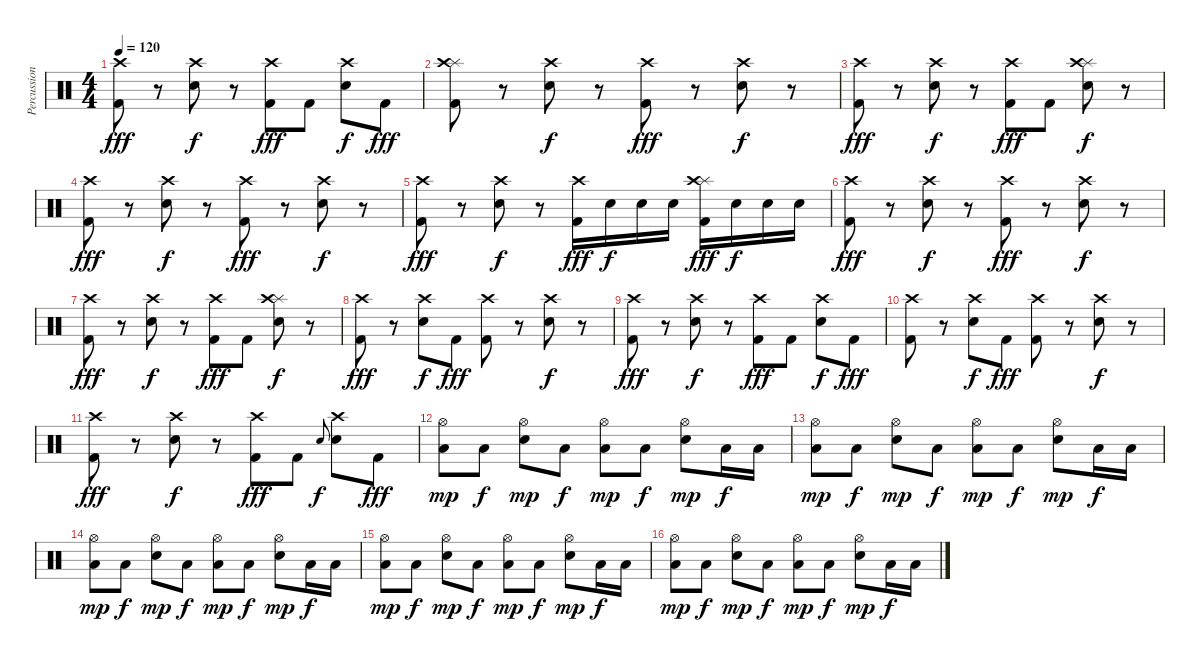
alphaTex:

\track ("Percussion" "Percussion") {instrument percussion}
\staff {score}
\articulation defaults
\ts (4 4)
\tempo 120
\clef neutral
\ks c
("Crash high (hit)" "Kick (hit) 2").8{dy fff} r.8 ("Electric Snare (hit)" "Crash high (hit)").8{dy f} r.8 ("Crash high (hit)" "Kick (hit) 2").8{dy fff} "Kick (hit) 2".8 ("Electric Snare (hit)" "Crash high (hit)").8{dy f} "Kick (hit) 2".8{dy fff} |
("Splash (hit)" "Crash high (hit)" "Kick (hit) 2").8 r.8 ("Electric Snare (hit)" "Crash high (hit)").8{dy f} r.8 ("Crash high (hit)" "Kick (hit) 2").8{dy fff} r.8 ("Electric Snare (hit)" "Crash high (hit)").8{dy f} r.8 |
("Crash high (hit)" "Kick (hit) 2").8{dy fff} r.8 ("Electric Snare (hit)" "Crash high (hit)").8{dy f} r.8 ("Crash high (hit)" "Kick (hit) 2").8{dy fff} "Kick (hit) 2".8 ("Splash (hit)" "Electric Snare (hit)" "Crash high (hit)").8{dy f} r.8 |
("Crash high (hit)" "Kick (hit) 2").8{dy fff} r.8 ("Electric Snare (hit)" "Crash high (hit)").8{dy f} r.8 ("Crash high (hit)" "Kick (hit) 2").8{dy fff} r.8 ("Electric Snare (hit)" "Crash high (hit)").8{dy f} r.8 |
("Crash high (hit)" "Kick (hit) 2").8{dy fff} r.8 ("Electric Snare (hit)" "Crash high (hit)").8{dy f} r.8 ("Crash high (hit)" "Kick (hit) 2").16{dy fff} "Snare (hit) 2".16{dy f} "Electric Snare (hit)".16 "Snare (hit) 2".16 ("Splash (hit)" "Crash high (hit)" "Kick (hit) 2").16{dy fff} "Snare (hit) 2".16{dy f} "Electric Snare (hit)".16 "Snare (hit) 2".16 |
("Crash high (hit)" "Kick (hit) 2").8{dy fff} r.8 ("Electric Snare (hit)" "Crash high (hit)").8{dy f} r.8 ("Crash high (hit)" "Kick (hit) 2").8{dy fff} r.8 ("Electric Snare (hit)" "Crash high (hit)").8{dy f} r.8 |
("Crash high (hit)" "Kick (hit) 2").8{dy fff} r.8 ("Electric Snare (hit)" "Crash high (hit)").8{dy f} r.8 ("Crash high (hit)" "Kick (hit) 2").8{dy fff} "Kick (hit) 2".8 ("Splash (hit)" "Electric Snare (hit)" "Crash high (hit)").8{dy f} r.8 |
("Crash high (hit)" "Kick (hit) 2").8{dy fff} r.8 ("Electric Snare (hit)" "Crash high (hit)").8{dy f} "Kick (hit) 2".8{dy fff} ("Crash high (hit)" "Kick (hit) 2").8 r.8 ("Electric Snare (hit)" "Crash high (hit)").8{dy f} r.8 |
("Crash high (hit)" "Kick (hit) 2").8{dy fff} r.8 ("Electric Snare (hit)" "Crash high (hit)").8{dy f} r.8 ("Crash high (hit)" "Kick (hit) 2").8{dy fff} "Kick (hit) 2".8 ("Electric Snare (hit)" "Crash high (hit)").8{dy f} "Kick (hit) 2".8{dy fff} |
("Crash high (hit)" "Kick (hit) 2").8 r.8 ("Electric Snare (hit)" "Crash high (hit)").8{dy f} "Kick (hit) 2".8{dy fff} ("Crash high (hit)" "Kick (hit) 2").8 r.8 ("Electric Snare (hit)" "Crash high (hit)").8{dy f} r.8 |
("Crash high (hit)" "Kick (hit) 2").8{dy fff} r.8 ("Electric Snare (hit)" "Crash high (hit)").8{dy f} r.8 ("Crash high (hit)" "Kick (hit) 2").8{dy fff} "Kick (hit) 2".8 "Electric Snare (hit)".8{gr onbeat dy f} ("Electric Snare (hit)" "Crash high (hit)").8 "Kick (hit) 2".8{dy fff} |
("Hi-Hat (open)" "Low Floor Tom (hit)").8{dy mp} "Low Floor Tom (hit)".8{dy f} ("Electric Snare (hit)" "Hi-Hat (open)").8{dy mp} "Low Floor Tom (hit)".8{dy f} ("Hi-Hat (open)" "Low Floor Tom (hit)").8{dy mp} "Low Floor Tom (hit)".8{dy f} ("Electric Snare (hit)" "Hi-Hat (open)").8{dy mp} "Low Floor Tom (hit)".16{dy f} "Low Floor Tom (hit)".16 |
("Hi-Hat (open)" "Low Floor Tom (hit)").8{dy mp} "Low Floor Tom (hit)".8{dy f} ("Electric Snare (hit)" "Hi-Hat (open)").8{dy mp} "Low Floor Tom (hit)".8{dy f} ("Hi-Hat (open)" "Low Floor Tom (hit)").8{dy mp} "Low Floor Tom (hit)".8{dy f} ("Electric Snare (hit)" "Hi-Hat (open)").8{dy mp} "Low Floor Tom (hit)".16{dy f} "Low Floor Tom (hit)".16 |
("Hi-Hat (open)" "Low Floor Tom (hit)").8{dy mp} "Low Floor Tom (hit)".8{dy f} ("Electric Snare (hit)" "Hi-Hat (open)").8{dy mp} "Low Floor Tom (hit)".8{dy f} ("Hi-Hat (open)" "Low Floor Tom (hit)").8{dy mp} "Low Floor Tom (hit)".8{dy f} ("Electric Snare (hit)" "Hi-Hat (open)").8{dy mp} "Low Floor Tom (hit)".16{dy f} "Low Floor Tom (hit)".16 |
("Hi-Hat (open)" "Low Floor Tom (hit)").8{dy mp} "Low Floor Tom (hit)".8{dy f} ("Electric Snare (hit)" "Hi-Hat (open)").8{dy mp} "Low Floor Tom (hit)".8{dy f} ("Hi-Hat (open)" "Low Floor Tom (hit)").8{dy mp} "Low Floor Tom (hit)".8{dy f} ("Electric Snare (hit)" "Hi-Hat (open)").8{dy mp} "Low Floor Tom (hit)".16{dy f} "Low Floor Tom (hit)".16 |
("Hi-Hat (open)" "Low Floor Tom (hit)").8{dy mp} "Low Floor Tom (hit)".8{dy f} ("Electric Snare (hit)" "Hi-Hat (open)").8{dy mp} "Low Floor Tom (hit)".8{dy f} ("Hi-Hat (open)" "Low Floor Tom (hit)").8{dy mp} "Low Floor Tom (hit)".8{dy f} ("Electric Snare (hit)" "Hi-Hat (open)").8{dy mp} "Low Floor Tom (hit)".16{dy f} "Low Floor Tom (hit)".16
